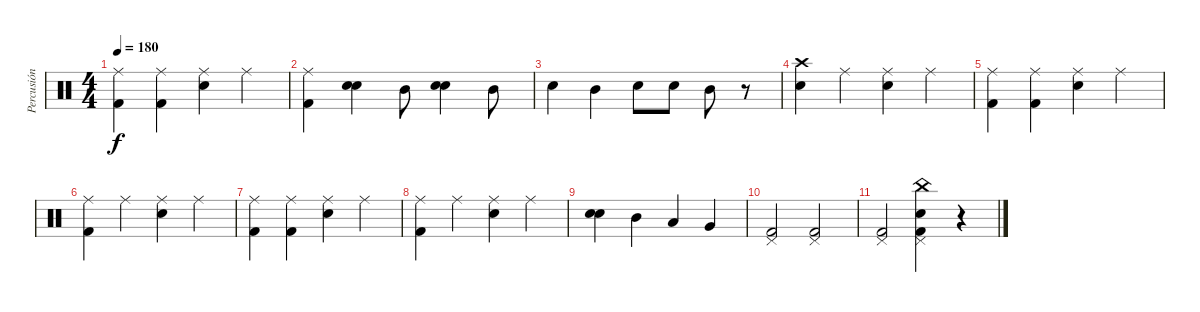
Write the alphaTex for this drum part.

\track ("Percusión" "Percusión") {instrument percussion}
\staff {score}
\articulation defaults
\ts (4 4)
\tempo 180
\clef neutral
\ks c
("Ride (middle)" "Kick (hit) 2").4{dy f} ("Ride (middle)" "Kick (hit) 2").4 ("Ride (middle)" "Snare (hit) 2").4 "Ride (middle)".4 |
("Ride (middle)" "Kick (hit) 2").4 ("Snare (hit) 2" "Snare (hit) 2").4{bu 240} "Mid Tom (hit)".8 ("Snare (hit) 2" "Snare (hit) 2").4{bu 240} "Mid Tom (hit)".8 |
"Snare (hit) 2".4 "Mid Tom (hit)".4 "Snare (hit) 2".8 "Snare (hit) 2".8 "Mid Tom (hit)".8 r.8 |
("Crash high (hit)" "Snare (hit) 2").4 "Ride (middle)".4 ("Ride (middle)" "Snare (hit) 2").4 "Ride (middle)".4 |
("Ride (middle)" "Kick (hit) 2").4 ("Ride (middle)" "Kick (hit) 2").4 ("Ride (middle)" "Snare (hit) 2").4 "Ride (middle)".4 |
("Ride (middle)" "Kick (hit) 2").4 "Ride (middle)".4 ("Ride (middle)" "Snare (hit) 2").4 "Ride (middle)".4 |
("Ride (middle)" "Kick (hit) 2").4 ("Ride (middle)" "Kick (hit) 2").4 ("Ride (middle)" "Snare (hit) 2").4 "Ride (middle)".4 |
("Ride (middle)" "Kick (hit) 2").4 "Ride (middle)".4 ("Ride (middle)" "Snare (hit) 2").4 "Ride (middle)".4 |
("Snare (hit) 2" "Snare (hit) 2").4{bu 240} "Mid Tom (hit)".4 "Low Tom (hit)".4 "Very Low Tom (hit)".4 |
("Kick (hit) 2" "Pedal Hi-Hat (hit)").2 ("Kick (hit) 2" "Pedal Hi-Hat (hit)").2 |
("Kick (hit) 2" "Pedal Hi-Hat (hit)").2 ("Snare (hit) 2" "China (hit)" "Pedal Hi-Hat (hit)" "Kick (hit) 2").4 r.4
